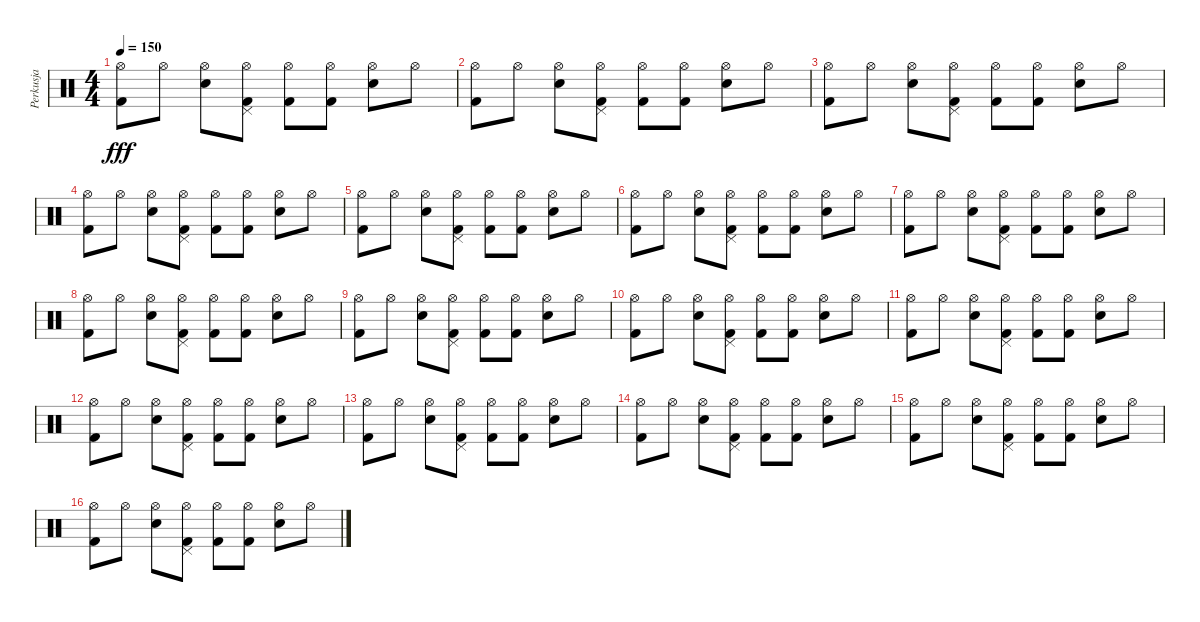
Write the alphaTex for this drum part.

\track ("Perkusja" "Perkusja") {instrument percussion}
\staff {score}
\articulation defaults
\ts (4 4)
\tempo 150
\clef neutral
\ks c
("Hi-Hat (open)" "Kick (hit) 2").8{dy fff} "Hi-Hat (open)".8 ("Hi-Hat (open)" "Electric Snare (hit)").8 ("Hi-Hat (open)" "Kick (hit) 2" "Pedal Hi-Hat (hit)").8 ("Hi-Hat (open)" "Kick (hit) 2").8 ("Hi-Hat (open)" "Kick (hit) 2").8 ("Hi-Hat (open)" "Electric Snare (hit)").8 "Hi-Hat (open)".8 |
("Hi-Hat (open)" "Kick (hit) 2").8 "Hi-Hat (open)".8 ("Hi-Hat (open)" "Electric Snare (hit)").8 ("Hi-Hat (open)" "Kick (hit) 2" "Pedal Hi-Hat (hit)").8 ("Hi-Hat (open)" "Kick (hit) 2").8 ("Hi-Hat (open)" "Kick (hit) 2").8 ("Hi-Hat (open)" "Electric Snare (hit)").8 "Hi-Hat (open)".8 |
("Hi-Hat (open)" "Kick (hit) 2").8 "Hi-Hat (open)".8 ("Hi-Hat (open)" "Electric Snare (hit)").8 ("Hi-Hat (open)" "Kick (hit) 2" "Pedal Hi-Hat (hit)").8 ("Hi-Hat (open)" "Kick (hit) 2").8 ("Hi-Hat (open)" "Kick (hit) 2").8 ("Hi-Hat (open)" "Electric Snare (hit)").8 "Hi-Hat (open)".8 |
("Hi-Hat (open)" "Kick (hit) 2").8 "Hi-Hat (open)".8 ("Hi-Hat (open)" "Electric Snare (hit)").8 ("Hi-Hat (open)" "Kick (hit) 2" "Pedal Hi-Hat (hit)").8 ("Hi-Hat (open)" "Kick (hit) 2").8 ("Hi-Hat (open)" "Kick (hit) 2").8 ("Hi-Hat (open)" "Electric Snare (hit)").8 "Hi-Hat (open)".8 |
("Hi-Hat (open)" "Kick (hit) 2").8 "Hi-Hat (open)".8 ("Hi-Hat (open)" "Electric Snare (hit)").8 ("Hi-Hat (open)" "Kick (hit) 2" "Pedal Hi-Hat (hit)").8 ("Hi-Hat (open)" "Kick (hit) 2").8 ("Hi-Hat (open)" "Kick (hit) 2").8 ("Hi-Hat (open)" "Electric Snare (hit)").8 "Hi-Hat (open)".8 |
("Hi-Hat (open)" "Kick (hit) 2").8 "Hi-Hat (open)".8 ("Hi-Hat (open)" "Electric Snare (hit)").8 ("Hi-Hat (open)" "Kick (hit) 2" "Pedal Hi-Hat (hit)").8 ("Hi-Hat (open)" "Kick (hit) 2").8 ("Hi-Hat (open)" "Kick (hit) 2").8 ("Hi-Hat (open)" "Electric Snare (hit)").8 "Hi-Hat (open)".8 |
("Hi-Hat (open)" "Kick (hit) 2").8 "Hi-Hat (open)".8 ("Hi-Hat (open)" "Electric Snare (hit)").8 ("Hi-Hat (open)" "Kick (hit) 2" "Pedal Hi-Hat (hit)").8 ("Hi-Hat (open)" "Kick (hit) 2").8 ("Hi-Hat (open)" "Kick (hit) 2").8 ("Hi-Hat (open)" "Electric Snare (hit)").8 "Hi-Hat (open)".8 |
("Hi-Hat (open)" "Kick (hit) 2").8 "Hi-Hat (open)".8 ("Hi-Hat (open)" "Electric Snare (hit)").8 ("Hi-Hat (open)" "Kick (hit) 2" "Pedal Hi-Hat (hit)").8 ("Hi-Hat (open)" "Kick (hit) 2").8 ("Hi-Hat (open)" "Kick (hit) 2").8 ("Hi-Hat (open)" "Electric Snare (hit)").8 "Hi-Hat (open)".8 |
("Hi-Hat (open)" "Kick (hit) 2").8 "Hi-Hat (open)".8 ("Hi-Hat (open)" "Electric Snare (hit)").8 ("Hi-Hat (open)" "Kick (hit) 2" "Pedal Hi-Hat (hit)").8 ("Hi-Hat (open)" "Kick (hit) 2").8 ("Hi-Hat (open)" "Kick (hit) 2").8 ("Hi-Hat (open)" "Electric Snare (hit)").8 "Hi-Hat (open)".8 |
("Hi-Hat (open)" "Kick (hit) 2").8 "Hi-Hat (open)".8 ("Hi-Hat (open)" "Electric Snare (hit)").8 ("Hi-Hat (open)" "Kick (hit) 2" "Pedal Hi-Hat (hit)").8 ("Hi-Hat (open)" "Kick (hit) 2").8 ("Hi-Hat (open)" "Kick (hit) 2").8 ("Hi-Hat (open)" "Electric Snare (hit)").8 "Hi-Hat (open)".8 |
("Hi-Hat (open)" "Kick (hit) 2").8 "Hi-Hat (open)".8 ("Hi-Hat (open)" "Electric Snare (hit)").8 ("Hi-Hat (open)" "Kick (hit) 2" "Pedal Hi-Hat (hit)").8 ("Hi-Hat (open)" "Kick (hit) 2").8 ("Hi-Hat (open)" "Kick (hit) 2").8 ("Hi-Hat (open)" "Electric Snare (hit)").8 "Hi-Hat (open)".8 |
("Hi-Hat (open)" "Kick (hit) 2").8 "Hi-Hat (open)".8 ("Hi-Hat (open)" "Electric Snare (hit)").8 ("Hi-Hat (open)" "Kick (hit) 2" "Pedal Hi-Hat (hit)").8 ("Hi-Hat (open)" "Kick (hit) 2").8 ("Hi-Hat (open)" "Kick (hit) 2").8 ("Hi-Hat (open)" "Electric Snare (hit)").8 "Hi-Hat (open)".8 |
("Hi-Hat (open)" "Kick (hit) 2").8 "Hi-Hat (open)".8 ("Hi-Hat (open)" "Electric Snare (hit)").8 ("Hi-Hat (open)" "Kick (hit) 2" "Pedal Hi-Hat (hit)").8 ("Hi-Hat (open)" "Kick (hit) 2").8 ("Hi-Hat (open)" "Kick (hit) 2").8 ("Hi-Hat (open)" "Electric Snare (hit)").8 "Hi-Hat (open)".8 |
("Hi-Hat (open)" "Kick (hit) 2").8 "Hi-Hat (open)".8 ("Hi-Hat (open)" "Electric Snare (hit)").8 ("Hi-Hat (open)" "Kick (hit) 2" "Pedal Hi-Hat (hit)").8 ("Hi-Hat (open)" "Kick (hit) 2").8 ("Hi-Hat (open)" "Kick (hit) 2").8 ("Hi-Hat (open)" "Electric Snare (hit)").8 "Hi-Hat (open)".8 |
("Hi-Hat (open)" "Kick (hit) 2").8 "Hi-Hat (open)".8 ("Hi-Hat (open)" "Electric Snare (hit)").8 ("Hi-Hat (open)" "Kick (hit) 2" "Pedal Hi-Hat (hit)").8 ("Hi-Hat (open)" "Kick (hit) 2").8 ("Hi-Hat (open)" "Kick (hit) 2").8 ("Hi-Hat (open)" "Electric Snare (hit)").8 "Hi-Hat (open)".8 |
("Hi-Hat (open)" "Kick (hit) 2").8 "Hi-Hat (open)".8 ("Hi-Hat (open)" "Electric Snare (hit)").8 ("Hi-Hat (open)" "Kick (hit) 2" "Pedal Hi-Hat (hit)").8 ("Hi-Hat (open)" "Kick (hit) 2").8 ("Hi-Hat (open)" "Kick (hit) 2").8 ("Hi-Hat (open)" "Electric Snare (hit)").8 "Hi-Hat (open)".8
